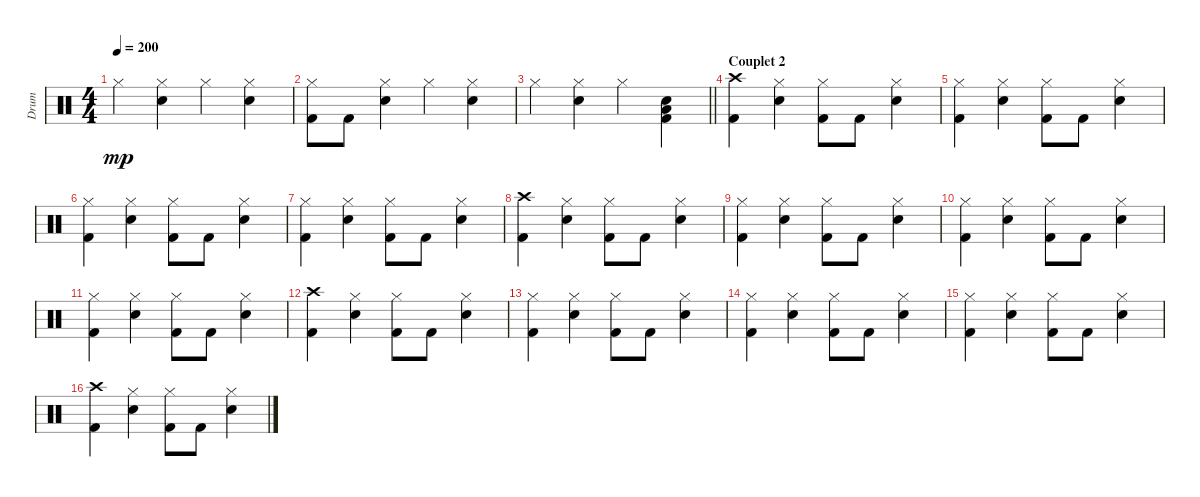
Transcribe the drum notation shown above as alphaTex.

\track ("Drum" "Drum") {instrument percussion}
\staff {score}
\articulation defaults
\ts (4 4)
\tempo 200
\clef neutral
\ks c "Hi-Hat (closed)".4{dy mp}
("Hi-Hat (closed)" "Snare (hit) 2").4 "Hi-Hat (closed)".4 ("Hi-Hat (closed)" "Snare (hit) 2").4 |
("Hi-Hat (closed)" "Kick (hit) 2").8 "Kick (hit) 2".8 ("Hi-Hat (closed)" "Snare (hit) 2").4 "Hi-Hat (closed)".4 ("Hi-Hat (closed)" "Snare (hit) 2").4 |
\barLineRight lightlight "Hi-Hat (closed)".4
("Hi-Hat (closed)" "Snare (hit) 2").4 "Hi-Hat (closed)".4 ("Snare (hit) 2" "Low Tom (hit)" "Kick (hit) 2").4 |
\section ("" "Couplet 2")
("Crash high (hit)" "Kick (hit) 2").4 ("Hi-Hat (closed)" "Snare (hit) 2").4 ("Hi-Hat (closed)" "Kick (hit) 2").8 "Kick (hit) 2".8 ("Hi-Hat (closed)" "Snare (hit) 2").4 |
("Hi-Hat (closed)" "Kick (hit) 2").4 ("Hi-Hat (closed)" "Snare (hit) 2").4 ("Hi-Hat (closed)" "Kick (hit) 2").8 "Kick (hit) 2".8 ("Hi-Hat (closed)" "Snare (hit) 2").4 |
("Hi-Hat (closed)" "Kick (hit) 2").4 ("Hi-Hat (closed)" "Snare (hit) 2").4 ("Hi-Hat (closed)" "Kick (hit) 2").8 "Kick (hit) 2".8 ("Hi-Hat (closed)" "Snare (hit) 2").4 |
("Hi-Hat (closed)" "Kick (hit) 2").4 ("Hi-Hat (closed)" "Snare (hit) 2").4 ("Hi-Hat (closed)" "Kick (hit) 2").8 "Kick (hit) 2".8 ("Hi-Hat (closed)" "Snare (hit) 2").4 |
("Crash high (hit)" "Kick (hit) 2").4 ("Hi-Hat (closed)" "Snare (hit) 2").4 ("Hi-Hat (closed)" "Kick (hit) 2").8 "Kick (hit) 2".8 ("Hi-Hat (closed)" "Snare (hit) 2").4 |
("Hi-Hat (closed)" "Kick (hit) 2").4 ("Hi-Hat (closed)" "Snare (hit) 2").4 ("Hi-Hat (closed)" "Kick (hit) 2").8 "Kick (hit) 2".8 ("Hi-Hat (closed)" "Snare (hit) 2").4 |
("Hi-Hat (closed)" "Kick (hit) 2").4 ("Hi-Hat (closed)" "Snare (hit) 2").4 ("Hi-Hat (closed)" "Kick (hit) 2").8 "Kick (hit) 2".8 ("Hi-Hat (closed)" "Snare (hit) 2").4 |
("Hi-Hat (closed)" "Kick (hit) 2").4 ("Hi-Hat (closed)" "Snare (hit) 2").4 ("Hi-Hat (closed)" "Kick (hit) 2").8 "Kick (hit) 2".8 ("Hi-Hat (closed)" "Snare (hit) 2").4 |
("Crash high (hit)" "Kick (hit) 2").4 ("Hi-Hat (closed)" "Snare (hit) 2").4 ("Hi-Hat (closed)" "Kick (hit) 2").8 "Kick (hit) 2".8 ("Hi-Hat (closed)" "Snare (hit) 2").4 |
("Hi-Hat (closed)" "Kick (hit) 2").4 ("Hi-Hat (closed)" "Snare (hit) 2").4 ("Hi-Hat (closed)" "Kick (hit) 2").8 "Kick (hit) 2".8 ("Hi-Hat (closed)" "Snare (hit) 2").4 |
("Hi-Hat (closed)" "Kick (hit) 2").4 ("Hi-Hat (closed)" "Snare (hit) 2").4 ("Hi-Hat (closed)" "Kick (hit) 2").8 "Kick (hit) 2".8 ("Hi-Hat (closed)" "Snare (hit) 2").4 |
("Hi-Hat (closed)" "Kick (hit) 2").4 ("Hi-Hat (closed)" "Snare (hit) 2").4 ("Hi-Hat (closed)" "Kick (hit) 2").8 "Kick (hit) 2".8 ("Hi-Hat (closed)" "Snare (hit) 2").4 |
("Crash high (hit)" "Kick (hit) 2").4 ("Hi-Hat (closed)" "Snare (hit) 2").4 ("Hi-Hat (closed)" "Kick (hit) 2").8 "Kick (hit) 2".8 ("Hi-Hat (closed)" "Snare (hit) 2").4
